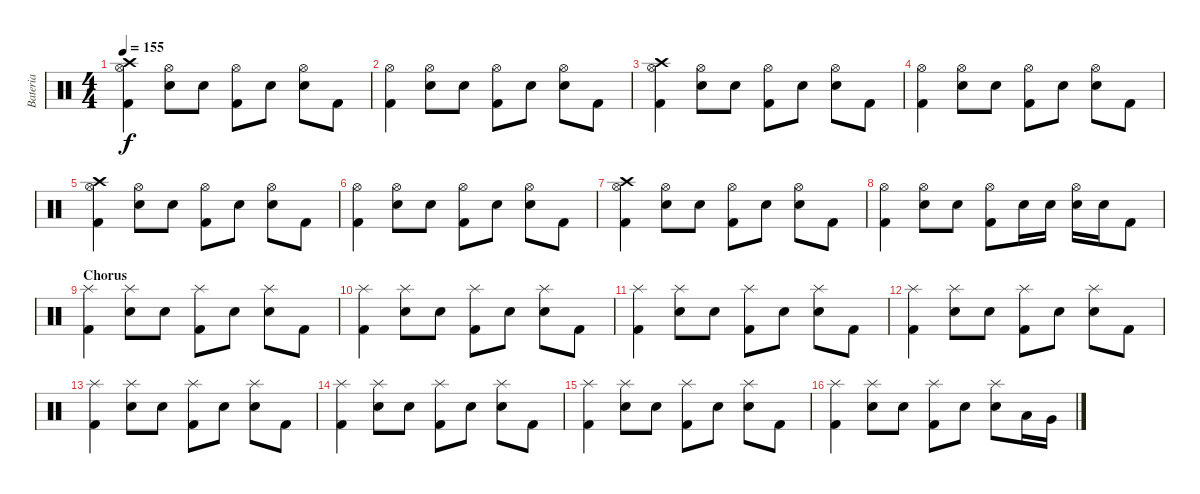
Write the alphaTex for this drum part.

\track ("Bateria" "Bateria") {instrument percussion}
\staff {score}
\articulation defaults
\ts (4 4)
\tempo 155
\clef neutral
\ks c
("Crash high (hit)" "Hi-Hat (open)" "Kick (hit) 2").4{dy f} ("Hi-Hat (open)" "Electric Snare (hit)").8 "Electric Snare (hit)".8 ("Hi-Hat (open)" "Kick (hit) 2").8 "Electric Snare (hit)".8 ("Hi-Hat (open)" "Electric Snare (hit)").8 "Kick (hit) 2".8 |
("Hi-Hat (open)" "Kick (hit) 2").4 ("Hi-Hat (open)" "Electric Snare (hit)").8 "Electric Snare (hit)".8 ("Hi-Hat (open)" "Kick (hit) 2").8 "Electric Snare (hit)".8 ("Hi-Hat (open)" "Electric Snare (hit)").8 "Kick (hit) 2".8 |
("Crash high (hit)" "Hi-Hat (open)" "Kick (hit) 2").4 ("Hi-Hat (open)" "Electric Snare (hit)").8 "Electric Snare (hit)".8 ("Hi-Hat (open)" "Kick (hit) 2").8 "Electric Snare (hit)".8 ("Hi-Hat (open)" "Electric Snare (hit)").8 "Kick (hit) 2".8 |
("Hi-Hat (open)" "Kick (hit) 2").4 ("Hi-Hat (open)" "Electric Snare (hit)").8 "Electric Snare (hit)".8 ("Hi-Hat (open)" "Kick (hit) 2").8 "Electric Snare (hit)".8 ("Hi-Hat (open)" "Electric Snare (hit)").8 "Kick (hit) 2".8 |
("Crash high (hit)" "Hi-Hat (open)" "Kick (hit) 2").4 ("Hi-Hat (open)" "Electric Snare (hit)").8 "Electric Snare (hit)".8 ("Hi-Hat (open)" "Kick (hit) 2").8 "Electric Snare (hit)".8 ("Hi-Hat (open)" "Electric Snare (hit)").8 "Kick (hit) 2".8 |
("Hi-Hat (open)" "Kick (hit) 2").4 ("Hi-Hat (open)" "Electric Snare (hit)").8 "Electric Snare (hit)".8 ("Hi-Hat (open)" "Kick (hit) 2").8 "Electric Snare (hit)".8 ("Hi-Hat (open)" "Electric Snare (hit)").8 "Kick (hit) 2".8 |
("Crash high (hit)" "Hi-Hat (open)" "Kick (hit) 2").4 ("Hi-Hat (open)" "Electric Snare (hit)").8 "Electric Snare (hit)".8 ("Hi-Hat (open)" "Kick (hit) 2").8 "Electric Snare (hit)".8 ("Hi-Hat (open)" "Electric Snare (hit)").8 "Kick (hit) 2".8 |
("Hi-Hat (open)" "Kick (hit) 2").4 ("Hi-Hat (open)" "Electric Snare (hit)").8 "Electric Snare (hit)".8 ("Hi-Hat (open)" "Kick (hit) 2").8 "Electric Snare (hit)".16 "Electric Snare (hit)".16 ("Hi-Hat (open)" "Electric Snare (hit)").16 "Electric Snare (hit)".16 "Kick (hit) 2".8 |
\section ("" "Chorus")
("Splash (hit)" "Kick (hit) 2").4 ("Splash (hit)" "Electric Snare (hit)").8 "Electric Snare (hit)".8 ("Splash (hit)" "Kick (hit) 2").8 "Electric Snare (hit)".8 ("Splash (hit)" "Electric Snare (hit)").8 "Kick (hit) 2".8 |
("Splash (hit)" "Kick (hit) 2").4 ("Splash (hit)" "Electric Snare (hit)").8 "Electric Snare (hit)".8 ("Splash (hit)" "Kick (hit) 2").8 "Electric Snare (hit)".8 ("Splash (hit)" "Electric Snare (hit)").8 "Kick (hit) 2".8 |
("Splash (hit)" "Kick (hit) 2").4 ("Splash (hit)" "Electric Snare (hit)").8 "Electric Snare (hit)".8 ("Splash (hit)" "Kick (hit) 2").8 "Electric Snare (hit)".8 ("Splash (hit)" "Electric Snare (hit)").8 "Kick (hit) 2".8 |
("Splash (hit)" "Kick (hit) 2").4 ("Splash (hit)" "Electric Snare (hit)").8 "Electric Snare (hit)".8 ("Splash (hit)" "Kick (hit) 2").8 "Electric Snare (hit)".8 ("Splash (hit)" "Electric Snare (hit)").8 "Kick (hit) 2".8 |
("Splash (hit)" "Kick (hit) 2").4 ("Splash (hit)" "Electric Snare (hit)").8 "Electric Snare (hit)".8 ("Splash (hit)" "Kick (hit) 2").8 "Electric Snare (hit)".8 ("Splash (hit)" "Electric Snare (hit)").8 "Kick (hit) 2".8 |
("Splash (hit)" "Kick (hit) 2").4 ("Splash (hit)" "Electric Snare (hit)").8 "Electric Snare (hit)".8 ("Splash (hit)" "Kick (hit) 2").8 "Electric Snare (hit)".8 ("Splash (hit)" "Electric Snare (hit)").8 "Kick (hit) 2".8 |
("Splash (hit)" "Kick (hit) 2").4 ("Splash (hit)" "Electric Snare (hit)").8 "Electric Snare (hit)".8 ("Splash (hit)" "Kick (hit) 2").8 "Electric Snare (hit)".8 ("Splash (hit)" "Electric Snare (hit)").8 "Kick (hit) 2".8 |
("Splash (hit)" "Kick (hit) 2").4 ("Splash (hit)" "Electric Snare (hit)").8 "Electric Snare (hit)".8 ("Splash (hit)" "Kick (hit) 2").8 "Electric Snare (hit)".8 ("Splash (hit)" "Electric Snare (hit)").8 "Low Tom (hit)".16 "Very Low Tom (hit)".16
